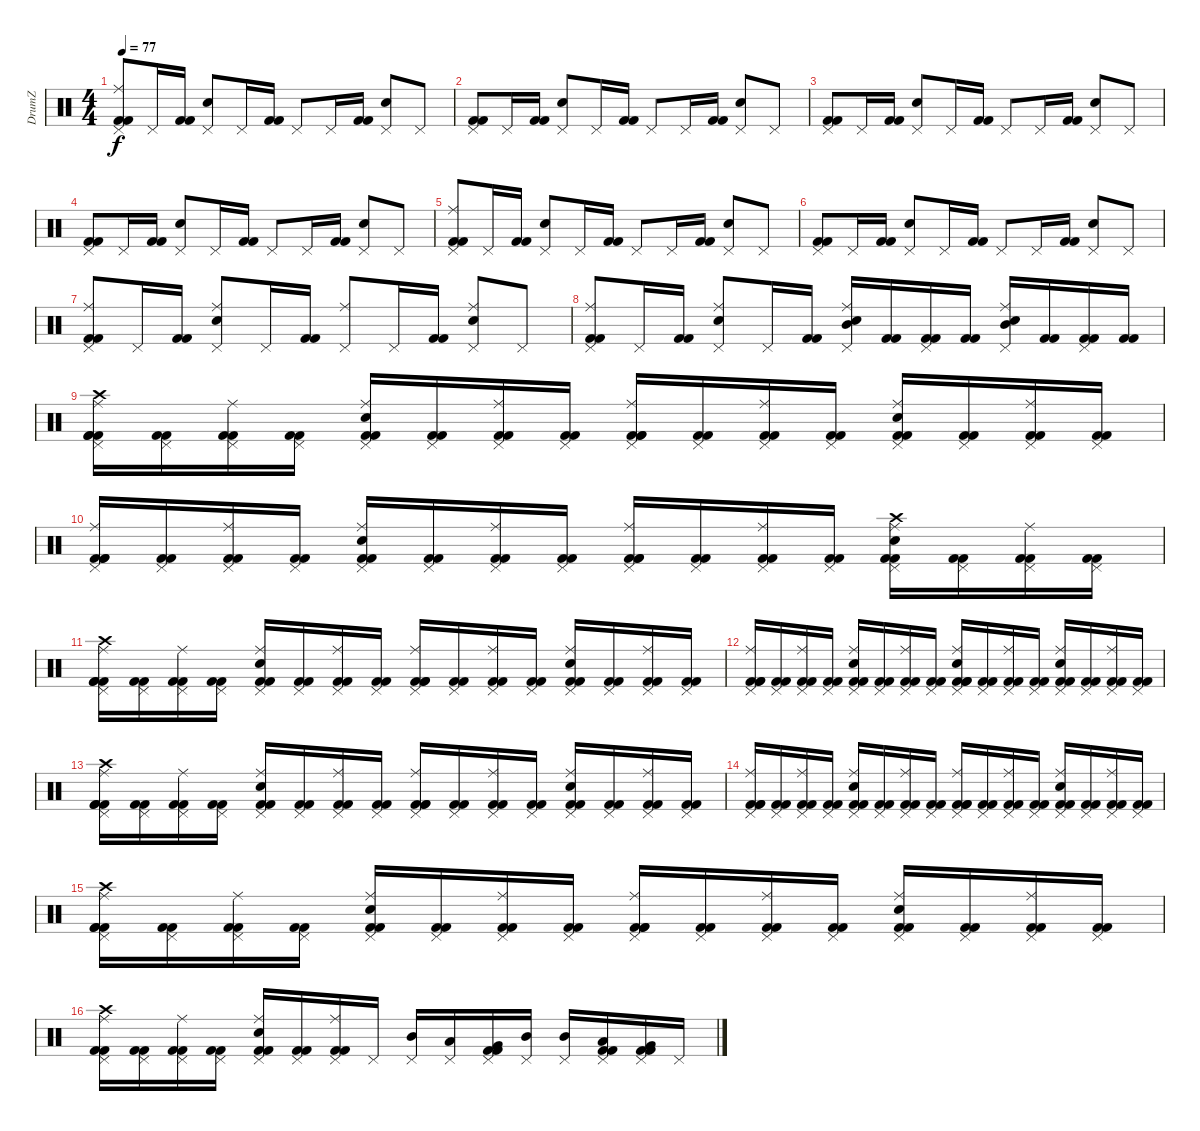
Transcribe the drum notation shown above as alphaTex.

\track ("DrumZ" "DrumZ") {instrument percussion}
\staff {score}
\articulation defaults
\ts (4 4)
\tempo 77
\clef neutral
\ks c
("Pedal Hi-Hat (hit)" "Ride (middle)" "Kick (hit) 2" "Kick (hit) 2").8{dy f} "Pedal Hi-Hat (hit)".16 ("Kick (hit) 2" "Kick (hit) 2").16 ("Pedal Hi-Hat (hit)" "Electric Snare (hit)").8 "Pedal Hi-Hat (hit)".16 ("Kick (hit) 2" "Kick (hit) 2").16 "Pedal Hi-Hat (hit)".8 "Pedal Hi-Hat (hit)".16 ("Kick (hit) 2" "Kick (hit) 2").16 ("Pedal Hi-Hat (hit)" "Electric Snare (hit)").8 "Pedal Hi-Hat (hit)".8 |
("Pedal Hi-Hat (hit)" "Kick (hit) 2" "Kick (hit) 2").8 "Pedal Hi-Hat (hit)".16 ("Kick (hit) 2" "Kick (hit) 2").16 ("Pedal Hi-Hat (hit)" "Electric Snare (hit)").8 "Pedal Hi-Hat (hit)".16 ("Kick (hit) 2" "Kick (hit) 2").16 "Pedal Hi-Hat (hit)".8 "Pedal Hi-Hat (hit)".16 ("Kick (hit) 2" "Kick (hit) 2").16 ("Pedal Hi-Hat (hit)" "Electric Snare (hit)").8 "Pedal Hi-Hat (hit)".8 |
("Pedal Hi-Hat (hit)" "Kick (hit) 2" "Kick (hit) 2").8 "Pedal Hi-Hat (hit)".16 ("Kick (hit) 2" "Kick (hit) 2").16 ("Pedal Hi-Hat (hit)" "Electric Snare (hit)").8 "Pedal Hi-Hat (hit)".16 ("Kick (hit) 2" "Kick (hit) 2").16 "Pedal Hi-Hat (hit)".8 "Pedal Hi-Hat (hit)".16 ("Kick (hit) 2" "Kick (hit) 2").16 ("Pedal Hi-Hat (hit)" "Electric Snare (hit)").8 "Pedal Hi-Hat (hit)".8 |
("Pedal Hi-Hat (hit)" "Kick (hit) 2" "Kick (hit) 2").8 "Pedal Hi-Hat (hit)".16 ("Kick (hit) 2" "Kick (hit) 2").16 ("Pedal Hi-Hat (hit)" "Electric Snare (hit)").8 "Pedal Hi-Hat (hit)".16 ("Kick (hit) 2" "Kick (hit) 2").16 "Pedal Hi-Hat (hit)".8 "Pedal Hi-Hat (hit)".16 ("Kick (hit) 2" "Kick (hit) 2").16 ("Pedal Hi-Hat (hit)" "Electric Snare (hit)").8 "Pedal Hi-Hat (hit)".8 |
("Pedal Hi-Hat (hit)" "Ride (middle)" "Kick (hit) 2" "Kick (hit) 2").8 "Pedal Hi-Hat (hit)".16 ("Kick (hit) 2" "Kick (hit) 2").16 ("Pedal Hi-Hat (hit)" "Electric Snare (hit)").8 "Pedal Hi-Hat (hit)".16 ("Kick (hit) 2" "Kick (hit) 2").16 "Pedal Hi-Hat (hit)".8 "Pedal Hi-Hat (hit)".16 ("Kick (hit) 2" "Kick (hit) 2").16 ("Pedal Hi-Hat (hit)" "Electric Snare (hit)").8 "Pedal Hi-Hat (hit)".8 |
("Pedal Hi-Hat (hit)" "Kick (hit) 2" "Kick (hit) 2").8 "Pedal Hi-Hat (hit)".16 ("Kick (hit) 2" "Kick (hit) 2").16 ("Pedal Hi-Hat (hit)" "Electric Snare (hit)").8 "Pedal Hi-Hat (hit)".16 ("Kick (hit) 2" "Kick (hit) 2").16 "Pedal Hi-Hat (hit)".8 "Pedal Hi-Hat (hit)".16 ("Kick (hit) 2" "Kick (hit) 2").16 ("Pedal Hi-Hat (hit)" "Electric Snare (hit)").8 "Pedal Hi-Hat (hit)".8 |
("Pedal Hi-Hat (hit)" "Ride (middle)" "Kick (hit) 2" "Kick (hit) 2").8 "Pedal Hi-Hat (hit)".16 ("Kick (hit) 2" "Kick (hit) 2").16 ("Pedal Hi-Hat (hit)" "Ride (middle)" "Electric Snare (hit)").8 "Pedal Hi-Hat (hit)".16 ("Kick (hit) 2" "Kick (hit) 2").16 ("Pedal Hi-Hat (hit)" "Ride (middle)").8 "Pedal Hi-Hat (hit)".16 ("Kick (hit) 2" "Kick (hit) 2").16 ("Pedal Hi-Hat (hit)" "Ride (middle)" "Electric Snare (hit)").8 "Pedal Hi-Hat (hit)".8 |
("Pedal Hi-Hat (hit)" "Ride (middle)" "Kick (hit) 2" "Kick (hit) 2").8 "Pedal Hi-Hat (hit)".16 ("Kick (hit) 2" "Kick (hit) 2").16 ("Pedal Hi-Hat (hit)" "Ride (middle)" "Electric Snare (hit)").8 "Pedal Hi-Hat (hit)".16 ("Kick (hit) 2" "Kick (hit) 2").16 ("Pedal Hi-Hat (hit)" "Ride (middle)" "Electric Snare (hit)" "Mid Tom (hit)").16 ("Kick (hit) 2" "Kick (hit) 2").16 ("Pedal Hi-Hat (hit)" "Kick (hit) 2" "Kick (hit) 2").16 ("Kick (hit) 2" "Kick (hit) 2").16 ("Pedal Hi-Hat (hit)" "Ride (middle)" "Electric Snare (hit)" "Mid Tom (hit)").16 ("Kick (hit) 2" "Kick (hit) 2").16 ("Pedal Hi-Hat (hit)" "Kick (hit) 2" "Kick (hit) 2").16 ("Kick (hit) 2" "Kick (hit) 2").16 |
("Ride (middle)" "Crash high (hit)" "Kick (hit) 2" "Kick (hit) 2" "Kick (hit) 2" "Pedal Hi-Hat (hit)").16 ("Kick (hit) 2" "Kick (hit) 2" "Pedal Hi-Hat (hit)").16 ("Ride (middle)" "Kick (hit) 2" "Kick (hit) 2" "Pedal Hi-Hat (hit)").16 ("Kick (hit) 2" "Kick (hit) 2" "Pedal Hi-Hat (hit)").16 ("Ride (middle)" "Electric Snare (hit)" "Kick (hit) 2" "Kick (hit) 2" "Pedal Hi-Hat (hit)").16 ("Kick (hit) 2" "Kick (hit) 2" "Pedal Hi-Hat (hit)").16 ("Ride (middle)" "Kick (hit) 2" "Kick (hit) 2" "Pedal Hi-Hat (hit)").16 ("Kick (hit) 2" "Kick (hit) 2" "Pedal Hi-Hat (hit)").16 ("Ride (middle)" "Kick (hit) 2" "Kick (hit) 2" "Kick (hit) 2" "Pedal Hi-Hat (hit)").16 ("Kick (hit) 2" "Kick (hit) 2" "Pedal Hi-Hat (hit)").16 ("Ride (middle)" "Kick (hit) 2" "Kick (hit) 2" "Pedal Hi-Hat (hit)").16 ("Kick (hit) 2" "Kick (hit) 2" "Pedal Hi-Hat (hit)").16 ("Ride (middle)" "Electric Snare (hit)" "Kick (hit) 2" "Kick (hit) 2" "Pedal Hi-Hat (hit)").16 ("Kick (hit) 2" "Kick (hit) 2" "Pedal Hi-Hat (hit)").16 ("Ride (middle)" "Kick (hit) 2" "Kick (hit) 2" "Pedal Hi-Hat (hit)").16 ("Kick (hit) 2" "Kick (hit) 2" "Pedal Hi-Hat (hit)").16 |
("Pedal Hi-Hat (hit)" "Kick (hit) 2" "Kick (hit) 2" "Kick (hit) 2" "Ride (middle)").16 ("Pedal Hi-Hat (hit)" "Kick (hit) 2" "Kick (hit) 2").16 ("Pedal Hi-Hat (hit)" "Kick (hit) 2" "Kick (hit) 2" "Ride (middle)").16 ("Pedal Hi-Hat (hit)" "Kick (hit) 2" "Kick (hit) 2").16 ("Pedal Hi-Hat (hit)" "Electric Snare (hit)" "Kick (hit) 2" "Kick (hit) 2" "Ride (middle)").16 ("Pedal Hi-Hat (hit)" "Kick (hit) 2" "Kick (hit) 2").16 ("Pedal Hi-Hat (hit)" "Kick (hit) 2" "Kick (hit) 2" "Ride (middle)").16 ("Pedal Hi-Hat (hit)" "Kick (hit) 2" "Kick (hit) 2").16 ("Pedal Hi-Hat (hit)" "Kick (hit) 2" "Kick (hit) 2" "Kick (hit) 2" "Ride (middle)").16 ("Pedal Hi-Hat (hit)" "Kick (hit) 2" "Kick (hit) 2").16 ("Pedal Hi-Hat (hit)" "Kick (hit) 2" "Kick (hit) 2" "Ride (middle)").16 ("Pedal Hi-Hat (hit)" "Kick (hit) 2" "Kick (hit) 2").16 ("Pedal Hi-Hat (hit)" "Electric Snare (hit)" "Kick (hit) 2" "Kick (hit) 2" "Crash high (hit)" "Ride (middle)").16 ("Pedal Hi-Hat (hit)" "Kick (hit) 2" "Kick (hit) 2").16 ("Pedal Hi-Hat (hit)" "Kick (hit) 2" "Kick (hit) 2" "Ride (middle)").16 ("Pedal Hi-Hat (hit)" "Kick (hit) 2" "Kick (hit) 2").16 |
("Pedal Hi-Hat (hit)" "Crash high (hit)" "Kick (hit) 2" "Kick (hit) 2" "Kick (hit) 2" "Ride (middle)").16 ("Pedal Hi-Hat (hit)" "Kick (hit) 2" "Kick (hit) 2").16 ("Pedal Hi-Hat (hit)" "Kick (hit) 2" "Kick (hit) 2" "Ride (middle)").16 ("Pedal Hi-Hat (hit)" "Kick (hit) 2" "Kick (hit) 2").16 ("Pedal Hi-Hat (hit)" "Electric Snare (hit)" "Kick (hit) 2" "Kick (hit) 2" "Ride (middle)").16 ("Pedal Hi-Hat (hit)" "Kick (hit) 2" "Kick (hit) 2").16 ("Pedal Hi-Hat (hit)" "Kick (hit) 2" "Kick (hit) 2" "Ride (middle)").16 ("Pedal Hi-Hat (hit)" "Kick (hit) 2" "Kick (hit) 2").16 ("Pedal Hi-Hat (hit)" "Kick (hit) 2" "Kick (hit) 2" "Kick (hit) 2" "Ride (middle)").16 ("Pedal Hi-Hat (hit)" "Kick (hit) 2" "Kick (hit) 2").16 ("Pedal Hi-Hat (hit)" "Kick (hit) 2" "Kick (hit) 2" "Ride (middle)").16 ("Pedal Hi-Hat (hit)" "Kick (hit) 2" "Kick (hit) 2").16 ("Pedal Hi-Hat (hit)" "Electric Snare (hit)" "Kick (hit) 2" "Kick (hit) 2" "Ride (middle)").16 ("Pedal Hi-Hat (hit)" "Kick (hit) 2" "Kick (hit) 2").16 ("Pedal Hi-Hat (hit)" "Kick (hit) 2" "Kick (hit) 2" "Ride (middle)").16 ("Pedal Hi-Hat (hit)" "Kick (hit) 2" "Kick (hit) 2").16 |
("Pedal Hi-Hat (hit)" "Kick (hit) 2" "Kick (hit) 2" "Kick (hit) 2" "Ride (middle)").16 ("Pedal Hi-Hat (hit)" "Kick (hit) 2" "Kick (hit) 2").16 ("Pedal Hi-Hat (hit)" "Kick (hit) 2" "Kick (hit) 2" "Ride (middle)").16 ("Pedal Hi-Hat (hit)" "Kick (hit) 2" "Kick (hit) 2").16 ("Pedal Hi-Hat (hit)" "Electric Snare (hit)" "Kick (hit) 2" "Kick (hit) 2" "Ride (middle)").16 ("Pedal Hi-Hat (hit)" "Kick (hit) 2" "Kick (hit) 2").16 ("Pedal Hi-Hat (hit)" "Kick (hit) 2" "Kick (hit) 2" "Ride (middle)").16 ("Pedal Hi-Hat (hit)" "Kick (hit) 2" "Kick (hit) 2").16 ("Pedal Hi-Hat (hit)" "Electric Snare (hit)" "Kick (hit) 2" "Kick (hit) 2" "Kick (hit) 2" "Ride (middle)").16 ("Pedal Hi-Hat (hit)" "Kick (hit) 2" "Kick (hit) 2").16 ("Pedal Hi-Hat (hit)" "Kick (hit) 2" "Kick (hit) 2" "Ride (middle)").16 ("Pedal Hi-Hat (hit)" "Kick (hit) 2" "Kick (hit) 2").16 ("Pedal Hi-Hat (hit)" "Electric Snare (hit)" "Kick (hit) 2" "Kick (hit) 2" "Ride (middle)").16 ("Pedal Hi-Hat (hit)" "Kick (hit) 2" "Kick (hit) 2").16 ("Pedal Hi-Hat (hit)" "Kick (hit) 2" "Kick (hit) 2" "Ride (middle)").16 ("Pedal Hi-Hat (hit)" "Kick (hit) 2" "Kick (hit) 2").16 |
("Pedal Hi-Hat (hit)" "Crash high (hit)" "Kick (hit) 2" "Kick (hit) 2" "Kick (hit) 2" "Ride (middle)").16 ("Pedal Hi-Hat (hit)" "Kick (hit) 2" "Kick (hit) 2").16 ("Pedal Hi-Hat (hit)" "Kick (hit) 2" "Kick (hit) 2" "Ride (middle)").16 ("Pedal Hi-Hat (hit)" "Kick (hit) 2" "Kick (hit) 2").16 ("Pedal Hi-Hat (hit)" "Electric Snare (hit)" "Kick (hit) 2" "Kick (hit) 2" "Ride (middle)").16 ("Pedal Hi-Hat (hit)" "Kick (hit) 2" "Kick (hit) 2").16 ("Pedal Hi-Hat (hit)" "Kick (hit) 2" "Kick (hit) 2" "Ride (middle)").16 ("Pedal Hi-Hat (hit)" "Kick (hit) 2" "Kick (hit) 2").16 ("Pedal Hi-Hat (hit)" "Kick (hit) 2" "Kick (hit) 2" "Kick (hit) 2" "Ride (middle)").16 ("Pedal Hi-Hat (hit)" "Kick (hit) 2" "Kick (hit) 2").16 ("Pedal Hi-Hat (hit)" "Kick (hit) 2" "Kick (hit) 2" "Ride (middle)").16 ("Pedal Hi-Hat (hit)" "Kick (hit) 2" "Kick (hit) 2").16 ("Pedal Hi-Hat (hit)" "Electric Snare (hit)" "Kick (hit) 2" "Kick (hit) 2" "Ride (middle)").16 ("Pedal Hi-Hat (hit)" "Kick (hit) 2" "Kick (hit) 2").16 ("Pedal Hi-Hat (hit)" "Kick (hit) 2" "Kick (hit) 2" "Ride (middle)").16 ("Pedal Hi-Hat (hit)" "Kick (hit) 2" "Kick (hit) 2").16 |
("Pedal Hi-Hat (hit)" "Kick (hit) 2" "Kick (hit) 2" "Kick (hit) 2" "Ride (middle)").16 ("Pedal Hi-Hat (hit)" "Kick (hit) 2" "Kick (hit) 2").16 ("Pedal Hi-Hat (hit)" "Kick (hit) 2" "Kick (hit) 2" "Ride (middle)").16 ("Pedal Hi-Hat (hit)" "Kick (hit) 2" "Kick (hit) 2").16 ("Pedal Hi-Hat (hit)" "Electric Snare (hit)" "Kick (hit) 2" "Kick (hit) 2" "Ride (middle)").16 ("Pedal Hi-Hat (hit)" "Kick (hit) 2" "Kick (hit) 2").16 ("Pedal Hi-Hat (hit)" "Kick (hit) 2" "Kick (hit) 2" "Ride (middle)").16 ("Pedal Hi-Hat (hit)" "Kick (hit) 2" "Kick (hit) 2").16 ("Pedal Hi-Hat (hit)" "Kick (hit) 2" "Kick (hit) 2" "Kick (hit) 2" "Ride (middle)").16 ("Pedal Hi-Hat (hit)" "Kick (hit) 2" "Kick (hit) 2").16 ("Pedal Hi-Hat (hit)" "Kick (hit) 2" "Kick (hit) 2" "Ride (middle)").16 ("Pedal Hi-Hat (hit)" "Kick (hit) 2" "Kick (hit) 2").16 ("Pedal Hi-Hat (hit)" "Electric Snare (hit)" "Kick (hit) 2" "Kick (hit) 2" "Ride (middle)").16 ("Pedal Hi-Hat (hit)" "Kick (hit) 2" "Kick (hit) 2").16 ("Pedal Hi-Hat (hit)" "Kick (hit) 2" "Kick (hit) 2" "Ride (middle)").16 ("Pedal Hi-Hat (hit)" "Kick (hit) 2" "Kick (hit) 2").16 |
("Pedal Hi-Hat (hit)" "Crash high (hit)" "Kick (hit) 2" "Kick (hit) 2" "Kick (hit) 2" "Ride (middle)").16 ("Pedal Hi-Hat (hit)" "Kick (hit) 2" "Kick (hit) 2").16 ("Pedal Hi-Hat (hit)" "Kick (hit) 2" "Kick (hit) 2" "Ride (middle)").16 ("Pedal Hi-Hat (hit)" "Kick (hit) 2" "Kick (hit) 2").16 ("Pedal Hi-Hat (hit)" "Electric Snare (hit)" "Kick (hit) 2" "Kick (hit) 2" "Ride (middle)").16 ("Pedal Hi-Hat (hit)" "Kick (hit) 2" "Kick (hit) 2").16 ("Pedal Hi-Hat (hit)" "Kick (hit) 2" "Kick (hit) 2" "Ride (middle)").16 ("Pedal Hi-Hat (hit)" "Kick (hit) 2" "Kick (hit) 2").16 ("Pedal Hi-Hat (hit)" "Kick (hit) 2" "Kick (hit) 2" "Kick (hit) 2" "Ride (middle)").16 ("Pedal Hi-Hat (hit)" "Kick (hit) 2" "Kick (hit) 2").16 ("Pedal Hi-Hat (hit)" "Kick (hit) 2" "Kick (hit) 2" "Ride (middle)").16 ("Pedal Hi-Hat (hit)" "Kick (hit) 2" "Kick (hit) 2").16 ("Pedal Hi-Hat (hit)" "Electric Snare (hit)" "Kick (hit) 2" "Kick (hit) 2" "Ride (middle)").16 ("Pedal Hi-Hat (hit)" "Kick (hit) 2" "Kick (hit) 2").16 ("Pedal Hi-Hat (hit)" "Kick (hit) 2" "Kick (hit) 2" "Ride (middle)").16 ("Pedal Hi-Hat (hit)" "Kick (hit) 2" "Kick (hit) 2").16 |
("Pedal Hi-Hat (hit)" "Crash high (hit)" "Kick (hit) 2" "Kick (hit) 2" "Ride (middle)").16 ("Pedal Hi-Hat (hit)" "Kick (hit) 2" "Kick (hit) 2").16 ("Pedal Hi-Hat (hit)" "Kick (hit) 2" "Kick (hit) 2" "Ride (middle)").16 ("Pedal Hi-Hat (hit)" "Kick (hit) 2" "Kick (hit) 2").16 ("Pedal Hi-Hat (hit)" "Electric Snare (hit)" "Kick (hit) 2" "Kick (hit) 2" "Ride (middle)").16 ("Pedal Hi-Hat (hit)" "Kick (hit) 2" "Kick (hit) 2").16 ("Pedal Hi-Hat (hit)" "Kick (hit) 2" "Kick (hit) 2" "Ride (middle)").16 "Pedal Hi-Hat (hit)".16 ("Pedal Hi-Hat (hit)" "Mid Tom (hit)").16 ("Pedal Hi-Hat (hit)" "Low Tom (hit)").16 ("Pedal Hi-Hat (hit)" "Very Low Tom (hit)" "Kick (hit) 2" "Kick (hit) 2").16 ("Pedal Hi-Hat (hit)" "Mid Tom (hit)").16 ("Pedal Hi-Hat (hit)" "Mid Tom (hit)").16 ("Pedal Hi-Hat (hit)" "Low Tom (hit)" "Kick (hit) 2" "Kick (hit) 2").16 ("Pedal Hi-Hat (hit)" "Very Low Tom (hit)" "Kick (hit) 2" "Kick (hit) 2").16 "Pedal Hi-Hat (hit)".16
